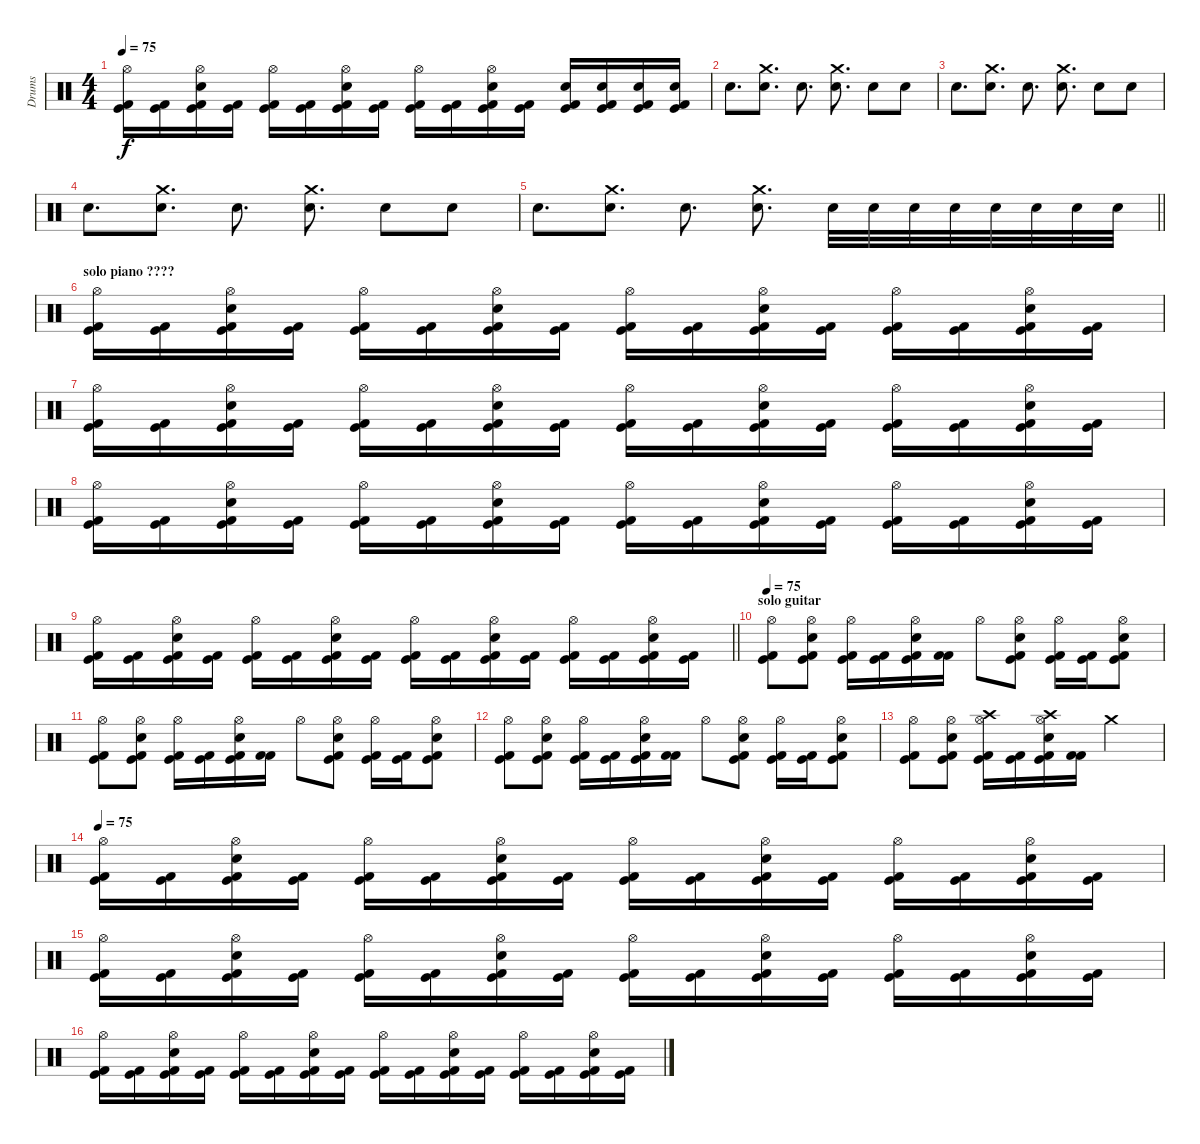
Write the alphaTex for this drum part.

\track ("Drums" "Drums") {instrument percussion}
\staff {score}
\articulation defaults
\ts (4 4)
\tempo 75
\clef neutral
\ks c
("Kick (hit) 2" "Kick (hit)" "Hi-Hat (open)").16{dy f} ("Kick (hit) 2" "Kick (hit)").16 ("Kick (hit) 2" "Kick (hit)" "Electric Snare (hit)" "Hi-Hat (open)").16 ("Kick (hit) 2" "Kick (hit)").16 ("Kick (hit) 2" "Kick (hit)" "Hi-Hat (open)").16 ("Kick (hit) 2" "Kick (hit)").16 ("Kick (hit) 2" "Kick (hit)" "Electric Snare (hit)" "Hi-Hat (open)").16 ("Kick (hit) 2" "Kick (hit)").16 ("Kick (hit) 2" "Kick (hit)" "Hi-Hat (open)").16 ("Kick (hit) 2" "Kick (hit)").16 ("Kick (hit) 2" "Kick (hit)" "Electric Snare (hit)" "Hi-Hat (open)").16 ("Kick (hit) 2" "Kick (hit)").16 ("Kick (hit) 2" "Kick (hit)" "Electric Snare (hit)").16 ("Kick (hit) 2" "Kick (hit)" "Electric Snare (hit)").16 ("Kick (hit) 2" "Kick (hit)" "Electric Snare (hit)").16 ("Kick (hit) 2" "Kick (hit)" "Electric Snare (hit)").16 |
"Snare (hit) 2".8{d} ("Snare (hit) 2" "Crash medium (hit)").8{d} "Snare (hit) 2".8{d} ("Snare (hit) 2" "Crash medium (hit)").8{d} "Snare (hit) 2".8 "Snare (hit) 2".8 |
"Snare (hit) 2".8{d} ("Snare (hit) 2" "Crash medium (hit)").8{d} "Snare (hit) 2".8{d} ("Snare (hit) 2" "Crash medium (hit)").8{d} "Snare (hit) 2".8 "Snare (hit) 2".8 |
"Snare (hit) 2".8{d} ("Snare (hit) 2" "Crash medium (hit)").8{d} "Snare (hit) 2".8{d} ("Snare (hit) 2" "Crash medium (hit)").8{d} "Snare (hit) 2".8 "Snare (hit) 2".8 |
\barLineRight lightlight "Snare (hit) 2".8{d}
("Snare (hit) 2" "Crash medium (hit)").8{d} "Snare (hit) 2".8{d} ("Snare (hit) 2" "Crash medium (hit)").8{d} "Snare (hit) 2".32 "Snare (hit) 2".32 "Snare (hit) 2".32 "Snare (hit) 2".32 "Snare (hit) 2".32 "Snare (hit) 2".32 "Snare (hit) 2".32 "Snare (hit) 2".32 |
\section ("" "solo piano ????")
("Kick (hit) 2" "Kick (hit)" "Hi-Hat (open)").16 ("Kick (hit) 2" "Kick (hit)").16 ("Kick (hit) 2" "Kick (hit)" "Electric Snare (hit)" "Hi-Hat (open)").16 ("Kick (hit) 2" "Kick (hit)").16 ("Kick (hit) 2" "Kick (hit)" "Hi-Hat (open)").16 ("Kick (hit) 2" "Kick (hit)").16 ("Kick (hit) 2" "Kick (hit)" "Electric Snare (hit)" "Hi-Hat (open)").16 ("Kick (hit) 2" "Kick (hit)").16 ("Kick (hit) 2" "Kick (hit)" "Hi-Hat (open)").16 ("Kick (hit) 2" "Kick (hit)").16 ("Kick (hit) 2" "Kick (hit)" "Electric Snare (hit)" "Hi-Hat (open)").16 ("Kick (hit) 2" "Kick (hit)").16 ("Kick (hit) 2" "Kick (hit)" "Hi-Hat (open)").16 ("Kick (hit) 2" "Kick (hit)").16 ("Kick (hit) 2" "Kick (hit)" "Electric Snare (hit)" "Hi-Hat (open)").16 ("Kick (hit) 2" "Kick (hit)").16 |
("Kick (hit) 2" "Kick (hit)" "Hi-Hat (open)").16 ("Kick (hit) 2" "Kick (hit)").16 ("Kick (hit) 2" "Kick (hit)" "Electric Snare (hit)" "Hi-Hat (open)").16 ("Kick (hit) 2" "Kick (hit)").16 ("Kick (hit) 2" "Kick (hit)" "Hi-Hat (open)").16 ("Kick (hit) 2" "Kick (hit)").16 ("Kick (hit) 2" "Kick (hit)" "Electric Snare (hit)" "Hi-Hat (open)").16 ("Kick (hit) 2" "Kick (hit)").16 ("Kick (hit) 2" "Kick (hit)" "Hi-Hat (open)").16 ("Kick (hit) 2" "Kick (hit)").16 ("Kick (hit) 2" "Kick (hit)" "Electric Snare (hit)" "Hi-Hat (open)").16 ("Kick (hit) 2" "Kick (hit)").16 ("Kick (hit) 2" "Kick (hit)" "Hi-Hat (open)").16 ("Kick (hit) 2" "Kick (hit)").16 ("Kick (hit) 2" "Kick (hit)" "Electric Snare (hit)" "Hi-Hat (open)").16 ("Kick (hit) 2" "Kick (hit)").16 |
("Kick (hit) 2" "Kick (hit)" "Hi-Hat (open)").16 ("Kick (hit) 2" "Kick (hit)").16 ("Kick (hit) 2" "Kick (hit)" "Electric Snare (hit)" "Hi-Hat (open)").16 ("Kick (hit) 2" "Kick (hit)").16 ("Kick (hit) 2" "Kick (hit)" "Hi-Hat (open)").16 ("Kick (hit) 2" "Kick (hit)").16 ("Kick (hit) 2" "Kick (hit)" "Electric Snare (hit)" "Hi-Hat (open)").16 ("Kick (hit) 2" "Kick (hit)").16 ("Kick (hit) 2" "Kick (hit)" "Hi-Hat (open)").16 ("Kick (hit) 2" "Kick (hit)").16 ("Kick (hit) 2" "Kick (hit)" "Electric Snare (hit)" "Hi-Hat (open)").16 ("Kick (hit) 2" "Kick (hit)").16 ("Kick (hit) 2" "Kick (hit)" "Hi-Hat (open)").16 ("Kick (hit) 2" "Kick (hit)").16 ("Kick (hit) 2" "Kick (hit)" "Electric Snare (hit)" "Hi-Hat (open)").16 ("Kick (hit) 2" "Kick (hit)").16 |
\barLineRight lightlight
("Kick (hit) 2" "Kick (hit)" "Hi-Hat (open)").16 ("Kick (hit) 2" "Kick (hit)").16 ("Kick (hit) 2" "Kick (hit)" "Electric Snare (hit)" "Hi-Hat (open)").16 ("Kick (hit) 2" "Kick (hit)").16 ("Kick (hit) 2" "Kick (hit)" "Hi-Hat (open)").16 ("Kick (hit) 2" "Kick (hit)").16 ("Kick (hit) 2" "Kick (hit)" "Electric Snare (hit)" "Hi-Hat (open)").16 ("Kick (hit) 2" "Kick (hit)").16 ("Kick (hit) 2" "Kick (hit)" "Hi-Hat (open)").16 ("Kick (hit) 2" "Kick (hit)").16 ("Kick (hit) 2" "Kick (hit)" "Electric Snare (hit)" "Hi-Hat (open)").16 ("Kick (hit) 2" "Kick (hit)").16 ("Kick (hit) 2" "Kick (hit)" "Hi-Hat (open)").16 ("Kick (hit) 2" "Kick (hit)").16 ("Kick (hit) 2" "Kick (hit)" "Electric Snare (hit)" "Hi-Hat (open)").16 ("Kick (hit) 2" "Kick (hit)").16 |
\section ("" "solo guitar")
\tempo 75
("Kick (hit) 2" "Kick (hit)" "Hi-Hat (open)").8 ("Kick (hit) 2" "Kick (hit)" "Snare (hit) 2" "Hi-Hat (open)").8 ("Kick (hit) 2" "Kick (hit)" "Hi-Hat (open)").16 ("Kick (hit) 2" "Kick (hit)").16 ("Kick (hit) 2" "Kick (hit)" "Snare (hit) 2" "Hi-Hat (open)").16 ("Kick (hit) 2" "Kick (hit) 2").16 "Hi-Hat (open)".8 ("Kick (hit) 2" "Kick (hit)" "Snare (hit) 2" "Hi-Hat (open)").8 ("Kick (hit) 2" "Kick (hit)" "Hi-Hat (open)").16 ("Kick (hit) 2" "Kick (hit)").16 ("Kick (hit) 2" "Kick (hit)" "Snare (hit) 2" "Hi-Hat (open)").8 |
("Kick (hit) 2" "Kick (hit)" "Hi-Hat (open)").8 ("Kick (hit) 2" "Kick (hit)" "Snare (hit) 2" "Hi-Hat (open)").8 ("Kick (hit) 2" "Kick (hit)" "Hi-Hat (open)").16 ("Kick (hit) 2" "Kick (hit)").16 ("Kick (hit) 2" "Kick (hit)" "Snare (hit) 2" "Hi-Hat (open)").16 ("Kick (hit) 2" "Kick (hit) 2").16 "Hi-Hat (open)".8 ("Kick (hit) 2" "Kick (hit)" "Snare (hit) 2" "Hi-Hat (open)").8 ("Kick (hit) 2" "Kick (hit)" "Hi-Hat (open)").16 ("Kick (hit) 2" "Kick (hit)").16 ("Kick (hit) 2" "Kick (hit)" "Snare (hit) 2" "Hi-Hat (open)").8 |
("Kick (hit) 2" "Kick (hit)" "Hi-Hat (open)").8 ("Kick (hit) 2" "Kick (hit)" "Snare (hit) 2" "Hi-Hat (open)").8 ("Kick (hit) 2" "Kick (hit)" "Hi-Hat (open)").16 ("Kick (hit) 2" "Kick (hit)").16 ("Kick (hit) 2" "Kick (hit)" "Snare (hit) 2" "Hi-Hat (open)").16 ("Kick (hit) 2" "Kick (hit) 2").16 "Hi-Hat (open)".8 ("Kick (hit) 2" "Kick (hit)" "Snare (hit) 2" "Hi-Hat (open)").8 ("Kick (hit) 2" "Kick (hit)" "Hi-Hat (open)").16 ("Kick (hit) 2" "Kick (hit)").16 ("Kick (hit) 2" "Kick (hit)" "Snare (hit) 2" "Hi-Hat (open)").8 |
("Kick (hit) 2" "Kick (hit)" "Hi-Hat (open)").8 ("Kick (hit) 2" "Kick (hit)" "Snare (hit) 2" "Hi-Hat (open)").8 ("Kick (hit) 2" "Kick (hit)" "Hi-Hat (open)" "Crash high (hit)").16 ("Kick (hit) 2" "Kick (hit)").16 ("Kick (hit) 2" "Kick (hit)" "Snare (hit) 2" "Hi-Hat (open)" "Crash high (hit)").16 ("Kick (hit) 2" "Kick (hit) 2").16 "Crash medium (hit)".2 |
\tempo 75
("Kick (hit) 2" "Kick (hit)" "Hi-Hat (open)").16 ("Kick (hit) 2" "Kick (hit)").16 ("Kick (hit) 2" "Kick (hit)" "Electric Snare (hit)" "Hi-Hat (open)").16 ("Kick (hit) 2" "Kick (hit)").16 ("Kick (hit) 2" "Kick (hit)" "Hi-Hat (open)").16 ("Kick (hit) 2" "Kick (hit)").16 ("Kick (hit) 2" "Kick (hit)" "Electric Snare (hit)" "Hi-Hat (open)").16 ("Kick (hit) 2" "Kick (hit)").16 ("Kick (hit) 2" "Kick (hit)" "Hi-Hat (open)").16 ("Kick (hit) 2" "Kick (hit)").16 ("Kick (hit) 2" "Kick (hit)" "Electric Snare (hit)" "Hi-Hat (open)").16 ("Kick (hit) 2" "Kick (hit)").16 ("Kick (hit) 2" "Kick (hit)" "Hi-Hat (open)").16 ("Kick (hit) 2" "Kick (hit)").16 ("Kick (hit) 2" "Kick (hit)" "Electric Snare (hit)" "Hi-Hat (open)").16 ("Kick (hit) 2" "Kick (hit)").16 |
("Kick (hit) 2" "Kick (hit)" "Hi-Hat (open)").16 ("Kick (hit) 2" "Kick (hit)").16 ("Kick (hit) 2" "Kick (hit)" "Electric Snare (hit)" "Hi-Hat (open)").16 ("Kick (hit) 2" "Kick (hit)").16 ("Kick (hit) 2" "Kick (hit)" "Hi-Hat (open)").16 ("Kick (hit) 2" "Kick (hit)").16 ("Kick (hit) 2" "Kick (hit)" "Electric Snare (hit)" "Hi-Hat (open)").16 ("Kick (hit) 2" "Kick (hit)").16 ("Kick (hit) 2" "Kick (hit)" "Hi-Hat (open)").16 ("Kick (hit) 2" "Kick (hit)").16 ("Kick (hit) 2" "Kick (hit)" "Electric Snare (hit)" "Hi-Hat (open)").16 ("Kick (hit) 2" "Kick (hit)").16 ("Kick (hit) 2" "Kick (hit)" "Hi-Hat (open)").16 ("Kick (hit) 2" "Kick (hit)").16 ("Kick (hit) 2" "Kick (hit)" "Electric Snare (hit)" "Hi-Hat (open)").16 ("Kick (hit) 2" "Kick (hit)").16 |
("Kick (hit) 2" "Kick (hit)" "Hi-Hat (open)").16 ("Kick (hit) 2" "Kick (hit)").16 ("Kick (hit) 2" "Kick (hit)" "Electric Snare (hit)" "Hi-Hat (open)").16 ("Kick (hit) 2" "Kick (hit)").16 ("Kick (hit) 2" "Kick (hit)" "Hi-Hat (open)").16 ("Kick (hit) 2" "Kick (hit)").16 ("Kick (hit) 2" "Kick (hit)" "Electric Snare (hit)" "Hi-Hat (open)").16 ("Kick (hit) 2" "Kick (hit)").16 ("Kick (hit) 2" "Kick (hit)" "Hi-Hat (open)").16 ("Kick (hit) 2" "Kick (hit)").16 ("Kick (hit) 2" "Kick (hit)" "Electric Snare (hit)" "Hi-Hat (open)").16 ("Kick (hit) 2" "Kick (hit)").16 ("Kick (hit) 2" "Kick (hit)" "Hi-Hat (open)").16 ("Kick (hit) 2" "Kick (hit)").16 ("Kick (hit) 2" "Kick (hit)" "Electric Snare (hit)" "Hi-Hat (open)").16 ("Kick (hit) 2" "Kick (hit)").16
